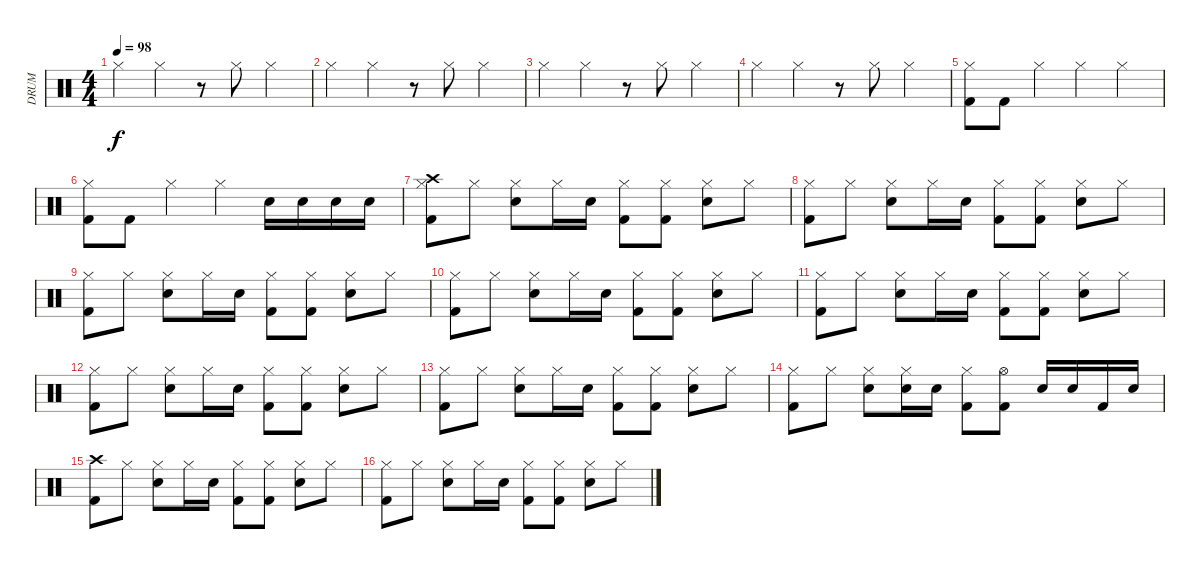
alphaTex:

\track ("DRUM" "DRUM") {instrument percussion}
\staff {score}
\articulation defaults
\ts (4 4)
\tempo 98
\clef neutral
\ks c "Hi-Hat (closed)".4{dy f} "Hi-Hat (closed)".4
r.8 "Hi-Hat (closed)".8 "Hi-Hat (closed)".4 |
"Hi-Hat (closed)".4 "Hi-Hat (closed)".4 r.8 "Hi-Hat (closed)".8 "Hi-Hat (closed)".4 |
"Hi-Hat (closed)".4 "Hi-Hat (closed)".4 r.8 "Hi-Hat (closed)".8 "Hi-Hat (closed)".4 |
"Hi-Hat (closed)".4 "Hi-Hat (closed)".4 r.8 "Hi-Hat (closed)".8 "Hi-Hat (closed)".4 |
("Hi-Hat (closed)" "Kick (hit) 2").8 "Kick (hit) 2".8 "Hi-Hat (closed)".4 "Hi-Hat (closed)".4 "Hi-Hat (closed)".4 |
("Hi-Hat (closed)" "Kick (hit) 2").8 "Kick (hit) 2".8 "Hi-Hat (closed)".4 "Hi-Hat (closed)".4 "Snare (hit) 2".16 "Snare (hit) 2".16 "Snare (hit) 2".16 "Snare (hit) 2".16 |
("Crash high (hit)" "Hi-Hat (closed)" "Kick (hit) 2").8 "Hi-Hat (closed)".8 ("Snare (hit) 2" "Hi-Hat (closed)").8 "Hi-Hat (closed)".16 "Snare (hit) 2".16 ("Hi-Hat (closed)" "Kick (hit) 2").8 ("Hi-Hat (closed)" "Kick (hit) 2").8 ("Snare (hit) 2" "Hi-Hat (closed)").8 "Hi-Hat (closed)".8 |
("Hi-Hat (closed)" "Kick (hit) 2").8 "Hi-Hat (closed)".8 ("Snare (hit) 2" "Hi-Hat (closed)").8 "Hi-Hat (closed)".16 "Snare (hit) 2".16 ("Hi-Hat (closed)" "Kick (hit) 2").8 ("Hi-Hat (closed)" "Kick (hit) 2").8 ("Snare (hit) 2" "Hi-Hat (closed)").8 "Hi-Hat (closed)".8 |
("Hi-Hat (closed)" "Kick (hit) 2").8 "Hi-Hat (closed)".8 ("Snare (hit) 2" "Hi-Hat (closed)").8 "Hi-Hat (closed)".16 "Snare (hit) 2".16 ("Hi-Hat (closed)" "Kick (hit) 2").8 ("Hi-Hat (closed)" "Kick (hit) 2").8 ("Snare (hit) 2" "Hi-Hat (closed)").8 "Hi-Hat (closed)".8 |
("Hi-Hat (closed)" "Kick (hit) 2").8 "Hi-Hat (closed)".8 ("Snare (hit) 2" "Hi-Hat (closed)").8 "Hi-Hat (closed)".16 "Snare (hit) 2".16 ("Hi-Hat (closed)" "Kick (hit) 2").8 ("Hi-Hat (closed)" "Kick (hit) 2").8 ("Snare (hit) 2" "Hi-Hat (closed)").8 "Hi-Hat (closed)".8 |
("Hi-Hat (closed)" "Kick (hit) 2").8 "Hi-Hat (closed)".8 ("Snare (hit) 2" "Hi-Hat (closed)").8 "Hi-Hat (closed)".16 "Snare (hit) 2".16 ("Hi-Hat (closed)" "Kick (hit) 2").8 ("Hi-Hat (closed)" "Kick (hit) 2").8 ("Snare (hit) 2" "Hi-Hat (closed)").8 "Hi-Hat (closed)".8 |
("Hi-Hat (closed)" "Kick (hit) 2").8 "Hi-Hat (closed)".8 ("Snare (hit) 2" "Hi-Hat (closed)").8 "Hi-Hat (closed)".16 "Snare (hit) 2".16 ("Hi-Hat (closed)" "Kick (hit) 2").8 ("Hi-Hat (closed)" "Kick (hit) 2").8 ("Snare (hit) 2" "Hi-Hat (closed)").8 "Hi-Hat (closed)".8 |
("Hi-Hat (closed)" "Kick (hit) 2").8 "Hi-Hat (closed)".8 ("Snare (hit) 2" "Hi-Hat (closed)").8 "Hi-Hat (closed)".16 "Snare (hit) 2".16 ("Hi-Hat (closed)" "Kick (hit) 2").8 ("Hi-Hat (closed)" "Kick (hit) 2").8 ("Snare (hit) 2" "Hi-Hat (closed)").8 "Hi-Hat (closed)".8 |
("Hi-Hat (closed)" "Kick (hit) 2").8 "Hi-Hat (closed)".8 ("Snare (hit) 2" "Hi-Hat (closed)").8 ("Snare (hit) 2" "Hi-Hat (closed)").16 "Snare (hit) 2".16 ("Hi-Hat (closed)" "Kick (hit) 2").8 ("Hi-Hat (open)" "Kick (hit) 2").8 "Snare (hit) 2".16 "Snare (hit) 2".16 "Kick (hit) 2".16 "Snare (hit) 2".16 |
("Crash high (hit)" "Kick (hit) 2").8 "Hi-Hat (closed)".8 ("Snare (hit) 2" "Hi-Hat (closed)").8 "Hi-Hat (closed)".16 "Snare (hit) 2".16 ("Hi-Hat (closed)" "Kick (hit) 2").8 ("Hi-Hat (closed)" "Kick (hit) 2").8 ("Snare (hit) 2" "Hi-Hat (closed)").8 "Hi-Hat (closed)".8 |
("Hi-Hat (closed)" "Kick (hit) 2").8 "Hi-Hat (closed)".8 ("Snare (hit) 2" "Hi-Hat (closed)").8 "Hi-Hat (closed)".16 "Snare (hit) 2".16 ("Hi-Hat (closed)" "Kick (hit) 2").8 ("Hi-Hat (closed)" "Kick (hit) 2").8 ("Snare (hit) 2" "Hi-Hat (closed)").8 "Hi-Hat (closed)".8
